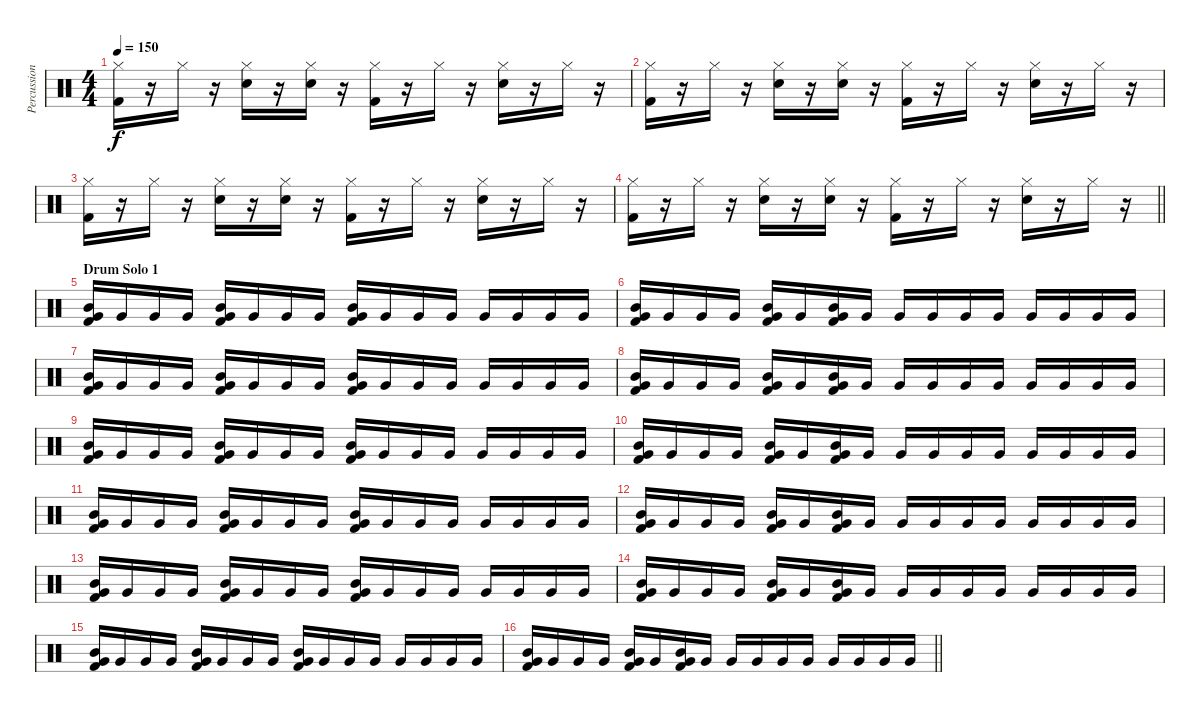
\track ("Percussion" "Percussion") {instrument percussion}
\staff {score}
\articulation defaults
\ts (4 4)
\tempo 150
\clef neutral
\ks c
("Hi-Hat (closed)" "Kick (hit) 2").16{dy f} r.16 "Hi-Hat (closed)".16 r.16 ("Hi-Hat (closed)" "Snare (hit) 2").16 r.16 ("Hi-Hat (closed)" "Snare (hit) 2").16 r.16 ("Hi-Hat (closed)" "Kick (hit) 2").16 r.16 "Hi-Hat (closed)".16 r.16 ("Hi-Hat (closed)" "Snare (hit) 2").16 r.16 "Hi-Hat (closed)".16 r.16 |
("Hi-Hat (closed)" "Kick (hit) 2").16 r.16 "Hi-Hat (closed)".16 r.16 ("Hi-Hat (closed)" "Snare (hit) 2").16 r.16 ("Hi-Hat (closed)" "Snare (hit) 2").16 r.16 ("Hi-Hat (closed)" "Kick (hit) 2").16 r.16 "Hi-Hat (closed)".16 r.16 ("Hi-Hat (closed)" "Snare (hit) 2").16 r.16 "Hi-Hat (closed)".16 r.16 |
("Hi-Hat (closed)" "Kick (hit) 2").16 r.16 "Hi-Hat (closed)".16 r.16 ("Hi-Hat (closed)" "Snare (hit) 2").16 r.16 ("Hi-Hat (closed)" "Snare (hit) 2").16 r.16 ("Hi-Hat (closed)" "Kick (hit) 2").16 r.16 "Hi-Hat (closed)".16 r.16 ("Hi-Hat (closed)" "Snare (hit) 2").16 r.16 "Hi-Hat (closed)".16 r.16 |
\barLineRight lightlight
("Hi-Hat (closed)" "Kick (hit) 2").16 r.16 "Hi-Hat (closed)".16 r.16 ("Hi-Hat (closed)" "Snare (hit) 2").16 r.16 ("Hi-Hat (closed)" "Snare (hit) 2").16 r.16 ("Hi-Hat (closed)" "Kick (hit) 2").16 r.16 "Hi-Hat (closed)".16 r.16 ("Hi-Hat (closed)" "Snare (hit) 2").16 r.16 "Hi-Hat (closed)".16 r.16 |
\section ("" "Drum Solo 1")
("Mid Tom (hit)" "Very Low Tom (hit)" "Kick (hit) 2").16 "Very Low Tom (hit)".16 "Very Low Tom (hit)".16 "Very Low Tom (hit)".16 ("Mid Tom (hit)" "Very Low Tom (hit)" "Kick (hit) 2").16 "Very Low Tom (hit)".16 "Very Low Tom (hit)".16 "Very Low Tom (hit)".16 ("Mid Tom (hit)" "Very Low Tom (hit)" "Kick (hit) 2").16 "Very Low Tom (hit)".16 "Very Low Tom (hit)".16 "Very Low Tom (hit)".16 "Very Low Tom (hit)".16 "Very Low Tom (hit)".16 "Very Low Tom (hit)".16 "Very Low Tom (hit)".16 |
("Mid Tom (hit)" "Very Low Tom (hit)" "Kick (hit) 2").16 "Very Low Tom (hit)".16 "Very Low Tom (hit)".16 "Very Low Tom (hit)".16 ("Mid Tom (hit)" "Very Low Tom (hit)" "Kick (hit) 2").16 "Very Low Tom (hit)".16 ("Mid Tom (hit)" "Very Low Tom (hit)" "Kick (hit) 2").16 "Very Low Tom (hit)".16 "Very Low Tom (hit)".16 "Very Low Tom (hit)".16 "Very Low Tom (hit)".16 "Very Low Tom (hit)".16 "Very Low Tom (hit)".16 "Very Low Tom (hit)".16 "Very Low Tom (hit)".16 "Very Low Tom (hit)".16 |
("Mid Tom (hit)" "Very Low Tom (hit)" "Kick (hit) 2").16 "Very Low Tom (hit)".16 "Very Low Tom (hit)".16 "Very Low Tom (hit)".16 ("Mid Tom (hit)" "Very Low Tom (hit)" "Kick (hit) 2").16 "Very Low Tom (hit)".16 "Very Low Tom (hit)".16 "Very Low Tom (hit)".16 ("Mid Tom (hit)" "Very Low Tom (hit)" "Kick (hit) 2").16 "Very Low Tom (hit)".16 "Very Low Tom (hit)".16 "Very Low Tom (hit)".16 "Very Low Tom (hit)".16 "Very Low Tom (hit)".16 "Very Low Tom (hit)".16 "Very Low Tom (hit)".16 |
("Mid Tom (hit)" "Very Low Tom (hit)" "Kick (hit) 2").16 "Very Low Tom (hit)".16 "Very Low Tom (hit)".16 "Very Low Tom (hit)".16 ("Mid Tom (hit)" "Very Low Tom (hit)" "Kick (hit) 2").16 "Very Low Tom (hit)".16 ("Mid Tom (hit)" "Very Low Tom (hit)" "Kick (hit) 2").16 "Very Low Tom (hit)".16 "Very Low Tom (hit)".16 "Very Low Tom (hit)".16 "Very Low Tom (hit)".16 "Very Low Tom (hit)".16 "Very Low Tom (hit)".16 "Very Low Tom (hit)".16 "Very Low Tom (hit)".16 "Very Low Tom (hit)".16 |
("Mid Tom (hit)" "Very Low Tom (hit)" "Kick (hit) 2").16 "Very Low Tom (hit)".16 "Very Low Tom (hit)".16 "Very Low Tom (hit)".16 ("Mid Tom (hit)" "Very Low Tom (hit)" "Kick (hit) 2").16 "Very Low Tom (hit)".16 "Very Low Tom (hit)".16 "Very Low Tom (hit)".16 ("Mid Tom (hit)" "Very Low Tom (hit)" "Kick (hit) 2").16 "Very Low Tom (hit)".16 "Very Low Tom (hit)".16 "Very Low Tom (hit)".16 "Very Low Tom (hit)".16 "Very Low Tom (hit)".16 "Very Low Tom (hit)".16 "Very Low Tom (hit)".16 |
("Mid Tom (hit)" "Very Low Tom (hit)" "Kick (hit) 2").16 "Very Low Tom (hit)".16 "Very Low Tom (hit)".16 "Very Low Tom (hit)".16 ("Mid Tom (hit)" "Very Low Tom (hit)" "Kick (hit) 2").16 "Very Low Tom (hit)".16 ("Mid Tom (hit)" "Very Low Tom (hit)" "Kick (hit) 2").16 "Very Low Tom (hit)".16 "Very Low Tom (hit)".16 "Very Low Tom (hit)".16 "Very Low Tom (hit)".16 "Very Low Tom (hit)".16 "Very Low Tom (hit)".16 "Very Low Tom (hit)".16 "Very Low Tom (hit)".16 "Very Low Tom (hit)".16 |
("Mid Tom (hit)" "Very Low Tom (hit)" "Kick (hit) 2").16 "Very Low Tom (hit)".16 "Very Low Tom (hit)".16 "Very Low Tom (hit)".16 ("Mid Tom (hit)" "Very Low Tom (hit)" "Kick (hit) 2").16 "Very Low Tom (hit)".16 "Very Low Tom (hit)".16 "Very Low Tom (hit)".16 ("Mid Tom (hit)" "Very Low Tom (hit)" "Kick (hit) 2").16 "Very Low Tom (hit)".16 "Very Low Tom (hit)".16 "Very Low Tom (hit)".16 "Very Low Tom (hit)".16 "Very Low Tom (hit)".16 "Very Low Tom (hit)".16 "Very Low Tom (hit)".16 |
("Mid Tom (hit)" "Very Low Tom (hit)" "Kick (hit) 2").16 "Very Low Tom (hit)".16 "Very Low Tom (hit)".16 "Very Low Tom (hit)".16 ("Mid Tom (hit)" "Very Low Tom (hit)" "Kick (hit) 2").16 "Very Low Tom (hit)".16 ("Mid Tom (hit)" "Very Low Tom (hit)" "Kick (hit) 2").16 "Very Low Tom (hit)".16 "Very Low Tom (hit)".16 "Very Low Tom (hit)".16 "Very Low Tom (hit)".16 "Very Low Tom (hit)".16 "Very Low Tom (hit)".16 "Very Low Tom (hit)".16 "Very Low Tom (hit)".16 "Very Low Tom (hit)".16 |
("Mid Tom (hit)" "Very Low Tom (hit)" "Kick (hit) 2").16 "Very Low Tom (hit)".16 "Very Low Tom (hit)".16 "Very Low Tom (hit)".16 ("Mid Tom (hit)" "Very Low Tom (hit)" "Kick (hit) 2").16 "Very Low Tom (hit)".16 "Very Low Tom (hit)".16 "Very Low Tom (hit)".16 ("Mid Tom (hit)" "Very Low Tom (hit)" "Kick (hit) 2").16 "Very Low Tom (hit)".16 "Very Low Tom (hit)".16 "Very Low Tom (hit)".16 "Very Low Tom (hit)".16 "Very Low Tom (hit)".16 "Very Low Tom (hit)".16 "Very Low Tom (hit)".16 |
("Mid Tom (hit)" "Very Low Tom (hit)" "Kick (hit) 2").16 "Very Low Tom (hit)".16 "Very Low Tom (hit)".16 "Very Low Tom (hit)".16 ("Mid Tom (hit)" "Very Low Tom (hit)" "Kick (hit) 2").16 "Very Low Tom (hit)".16 ("Mid Tom (hit)" "Very Low Tom (hit)" "Kick (hit) 2").16 "Very Low Tom (hit)".16 "Very Low Tom (hit)".16 "Very Low Tom (hit)".16 "Very Low Tom (hit)".16 "Very Low Tom (hit)".16 "Very Low Tom (hit)".16 "Very Low Tom (hit)".16 "Very Low Tom (hit)".16 "Very Low Tom (hit)".16 |
("Mid Tom (hit)" "Very Low Tom (hit)" "Kick (hit) 2").16 "Very Low Tom (hit)".16 "Very Low Tom (hit)".16 "Very Low Tom (hit)".16 ("Mid Tom (hit)" "Very Low Tom (hit)" "Kick (hit) 2").16 "Very Low Tom (hit)".16 "Very Low Tom (hit)".16 "Very Low Tom (hit)".16 ("Mid Tom (hit)" "Very Low Tom (hit)" "Kick (hit) 2").16 "Very Low Tom (hit)".16 "Very Low Tom (hit)".16 "Very Low Tom (hit)".16 "Very Low Tom (hit)".16 "Very Low Tom (hit)".16 "Very Low Tom (hit)".16 "Very Low Tom (hit)".16 |
\barLineRight lightlight
("Mid Tom (hit)" "Very Low Tom (hit)" "Kick (hit) 2").16 "Very Low Tom (hit)".16 "Very Low Tom (hit)".16 "Very Low Tom (hit)".16 ("Mid Tom (hit)" "Very Low Tom (hit)" "Kick (hit) 2").16 "Very Low Tom (hit)".16 ("Mid Tom (hit)" "Very Low Tom (hit)" "Kick (hit) 2").16 "Very Low Tom (hit)".16 "Very Low Tom (hit)".16 "Very Low Tom (hit)".16 "Very Low Tom (hit)".16 "Very Low Tom (hit)".16 "Very Low Tom (hit)".16 "Very Low Tom (hit)".16 "Very Low Tom (hit)".16 "Very Low Tom (hit)".16
